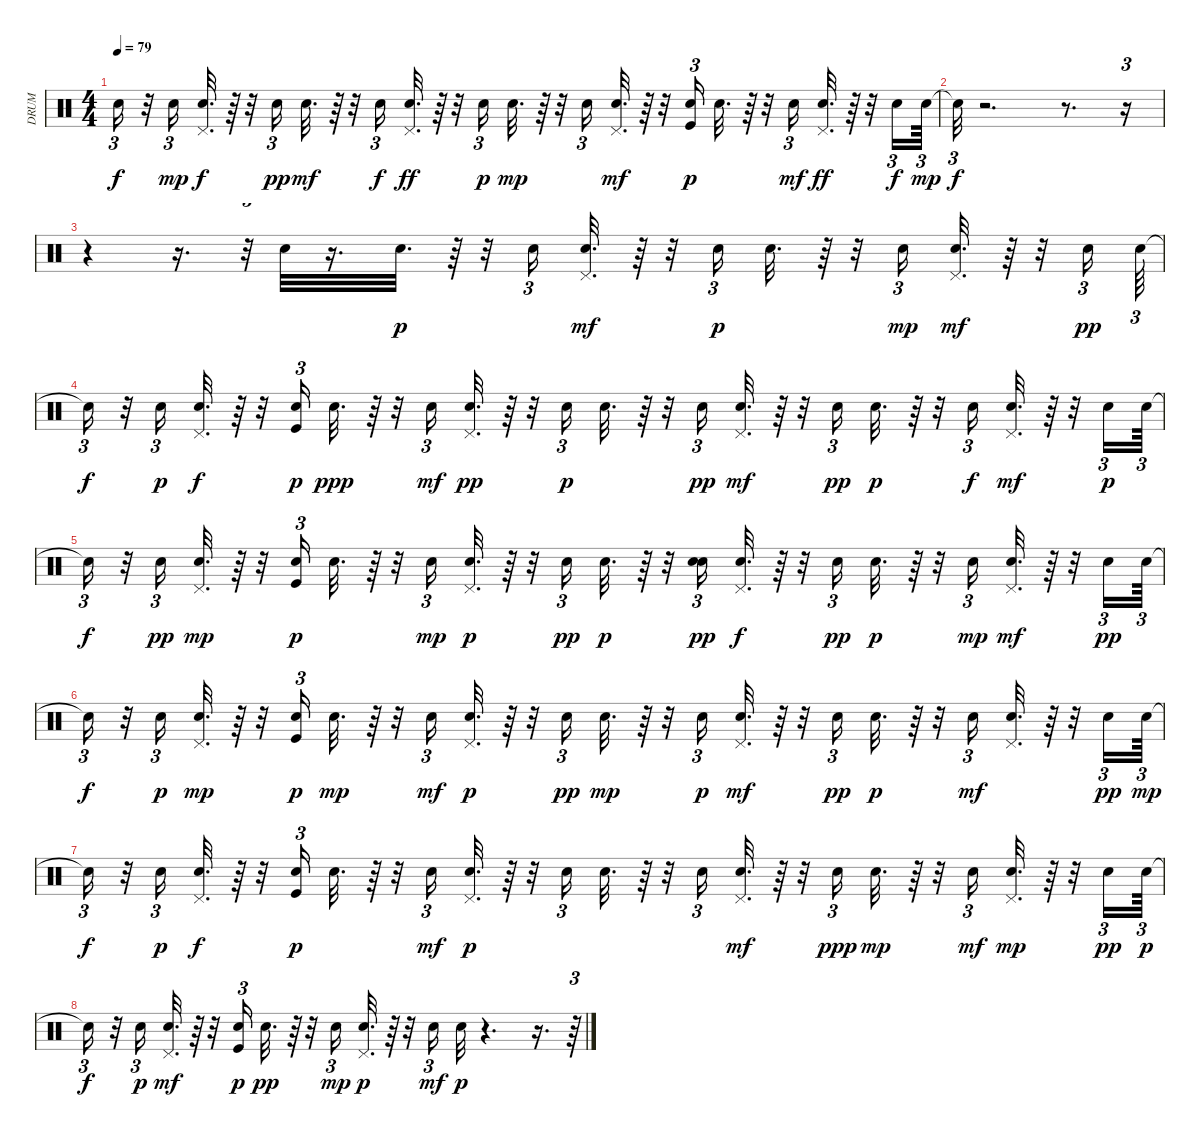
\track ("DRUM" "DRUM") {instrument percussion}
\staff {score}
\articulation defaults
\ts (4 4)
\tempo 79
\clef neutral
\ks c "Snare (hit)"{t}.16{tu (3 2) dy f}
r.32 "Snare (hit) 2".16{tu (3 2) dy mp} ("Pedal Hi-Hat (hit)" "Snare (hit) 2").32{d dy f} r.64 r.32 "Snare (hit) 2".16{tu (3 2) dy pp} "Snare (hit) 2".32{d dy mf} r.64 r.32 "Snare (hit) 2".16{tu (3 2) dy f} ("Snare (hit) 2" "Pedal Hi-Hat (hit)").32{d dy ff} r.64 r.32 "Snare (hit) 2".16{tu (3 2) dy p} "Snare (hit) 2".32{d dy mp} r.64 r.32 "Snare (hit) 2".16{tu (3 2)} ("Snare (hit) 2" "Pedal Hi-Hat (hit)").32{d dy mf} r.64 r.32 ("Snare (hit) 2" "Kick (hit)").16{tu (3 2) dy p} "Snare (hit) 2".32{d} r.64 r.32 "Hand Clap (hit)".16{tu (3 2) dy mf} ("Snare (hit) 2" "Pedal Hi-Hat (hit)").32{d dy ff} r.64 r.32 "Hand Clap (hit)".16{tu (3 2) dy f} "Snare (hit) 2".64{tu (3 2) dy mp} |
"Snare (hit)"{t}.32{tu (3 2) dy f} r.2{d} r.8{d} r.16{tu (3 2)} |
r.4 r.16{d} r.32{tu (3 2)} "Hand Clap (hit)".32 r.16{d} "Snare (hit) 2".32{d dy p} r.64 r.32 "Snare (hit) 2".16{tu (3 2)} ("Snare (hit) 2" "Pedal Hi-Hat (hit)").32{d dy mf} r.64 r.32 "Snare (hit) 2".16{tu (3 2) dy p} "Snare (hit) 2".32{d} r.64 r.32 "Snare (hit) 2".16{tu (3 2) dy mp} ("Snare (hit) 2" "Pedal Hi-Hat (hit)").32{d dy mf} r.64 r.32 "Snare (hit) 2".16{tu (3 2) dy pp} "Snare (hit) 2".64{tu (3 2)} |
"Snare (hit)"{t}.16{tu (3 2) dy f} r.32 "Snare (hit) 2".16{tu (3 2) dy p} ("Snare (hit) 2" "Pedal Hi-Hat (hit)").32{d dy f} r.64 r.32 ("Kick (hit)" "Snare (hit) 2").16{tu (3 2) dy p} "Snare (hit) 2".32{d dy ppp} r.64 r.32 "Hand Clap (hit)".16{tu (3 2) dy mf} ("Snare (hit) 2" "Pedal Hi-Hat (hit)").32{d dy pp} r.64 r.32 "Snare (hit) 2".16{tu (3 2) dy p} "Snare (hit) 2".32{d} r.64 r.32 "Snare (hit) 2".16{tu (3 2) dy pp} ("Snare (hit) 2" "Pedal Hi-Hat (hit)").32{d dy mf} r.64 r.32 "Snare (hit) 2".16{tu (3 2) dy pp} "Snare (hit) 2".32{d dy p} r.64 r.32 "Snare (hit) 2".16{tu (3 2) dy f} ("Snare (hit) 2" "Pedal Hi-Hat (hit)").32{d dy mf} r.64 r.32 "Snare (hit) 2".16{tu (3 2) dy p} "Snare (hit) 2".64{tu (3 2)} |
"Snare (hit)"{t}.16{tu (3 2) dy f} r.32 "Snare (hit) 2".16{tu (3 2) dy pp} ("Snare (hit) 2" "Pedal Hi-Hat (hit)").32{d dy mp} r.64 r.32 ("Kick (hit)" "Snare (hit) 2").16{tu (3 2) dy p} "Snare (hit) 2".32{d} r.64 r.32 "Hand Clap (hit)".16{tu (3 2) dy mp} ("Snare (hit) 2" "Pedal Hi-Hat (hit)").32{d dy p} r.64 r.32 "Snare (hit) 2".16{tu (3 2) dy pp} "Snare (hit) 2".32{d dy p} r.64 r.32 ("Snare (hit) 2" "Electric Snare (hit)").16{tu (3 2) dy pp} ("Snare (hit) 2" "Pedal Hi-Hat (hit)").32{d dy f} r.64 r.32 "Snare (hit) 2".16{tu (3 2) dy pp} "Snare (hit) 2".32{d dy p} r.64 r.32 "Snare (hit) 2".16{tu (3 2) dy mp} ("Snare (hit) 2" "Pedal Hi-Hat (hit)").32{d dy mf} r.64 r.32 "Snare (hit) 2".16{tu (3 2) dy pp} "Snare (hit) 2".64{tu (3 2)} |
"Snare (hit)"{t}.16{tu (3 2) dy f} r.32 "Snare (hit) 2".16{tu (3 2) dy p} ("Snare (hit) 2" "Pedal Hi-Hat (hit)").32{d dy mp} r.64 r.32 ("Kick (hit)" "Snare (hit) 2").16{tu (3 2) dy p} "Snare (hit) 2".32{d dy mp} r.64 r.32 "Hand Clap (hit)".16{tu (3 2) dy mf} ("Snare (hit) 2" "Pedal Hi-Hat (hit)").32{d dy p} r.64 r.32 "Snare (hit) 2".16{tu (3 2) dy pp} "Snare (hit) 2".32{d dy mp} r.64 r.32 "Snare (hit) 2".16{tu (3 2) dy p} ("Snare (hit) 2" "Pedal Hi-Hat (hit)").32{d dy mf} r.64 r.32 "Snare (hit) 2".16{tu (3 2) dy pp} "Snare (hit) 2".32{d dy p} r.64 r.32 "Snare (hit) 2".16{tu (3 2) dy mf} ("Snare (hit) 2" "Pedal Hi-Hat (hit)").32{d} r.64 r.32 "Snare (hit) 2".16{tu (3 2) dy pp} "Snare (hit) 2".64{tu (3 2) dy mp} |
"Snare (hit)"{t}.16{tu (3 2) dy f} r.32 "Snare (hit) 2".16{tu (3 2) dy p} ("Snare (hit) 2" "Pedal Hi-Hat (hit)").32{d dy f} r.64 r.32 ("Kick (hit)" "Snare (hit) 2").16{tu (3 2) dy p} "Snare (hit) 2".32{d} r.64 r.32 "Hand Clap (hit)".16{tu (3 2) dy mf} ("Snare (hit) 2" "Pedal Hi-Hat (hit)").32{d dy p} r.64 r.32 "Snare (hit) 2".16{tu (3 2)} "Snare (hit) 2".32{d} r.64 r.32 "Snare (hit) 2".16{tu (3 2)} ("Snare (hit) 2" "Pedal Hi-Hat (hit)").32{d dy mf} r.64 r.32 "Snare (hit) 2".16{tu (3 2) dy ppp} "Snare (hit) 2".32{d dy mp} r.64 r.32 "Snare (hit) 2".16{tu (3 2) dy mf} ("Snare (hit) 2" "Pedal Hi-Hat (hit)").32{d dy mp} r.64 r.32 "Snare (hit) 2".16{tu (3 2) dy pp} "Snare (hit) 2".64{tu (3 2) dy p} |
"Snare (hit)"{t}.16{tu (3 2) dy f} r.32 "Snare (hit) 2".16{tu (3 2) dy p} ("Snare (hit) 2" "Pedal Hi-Hat (hit)").32{d dy mf} r.64 r.32 ("Kick (hit)" "Snare (hit) 2").16{tu (3 2) dy p} "Snare (hit) 2".32{d dy pp} r.64 r.32 "Hand Clap (hit)".16{tu (3 2) dy mp} ("Snare (hit) 2" "Pedal Hi-Hat (hit)").32{d dy p} r.64 r.32 "Hand Clap (hit)".16{tu (3 2) dy mf} "Snare (hit) 2".32{dy p} r.4{d} r.16{d} r.64{tu (3 2)}
